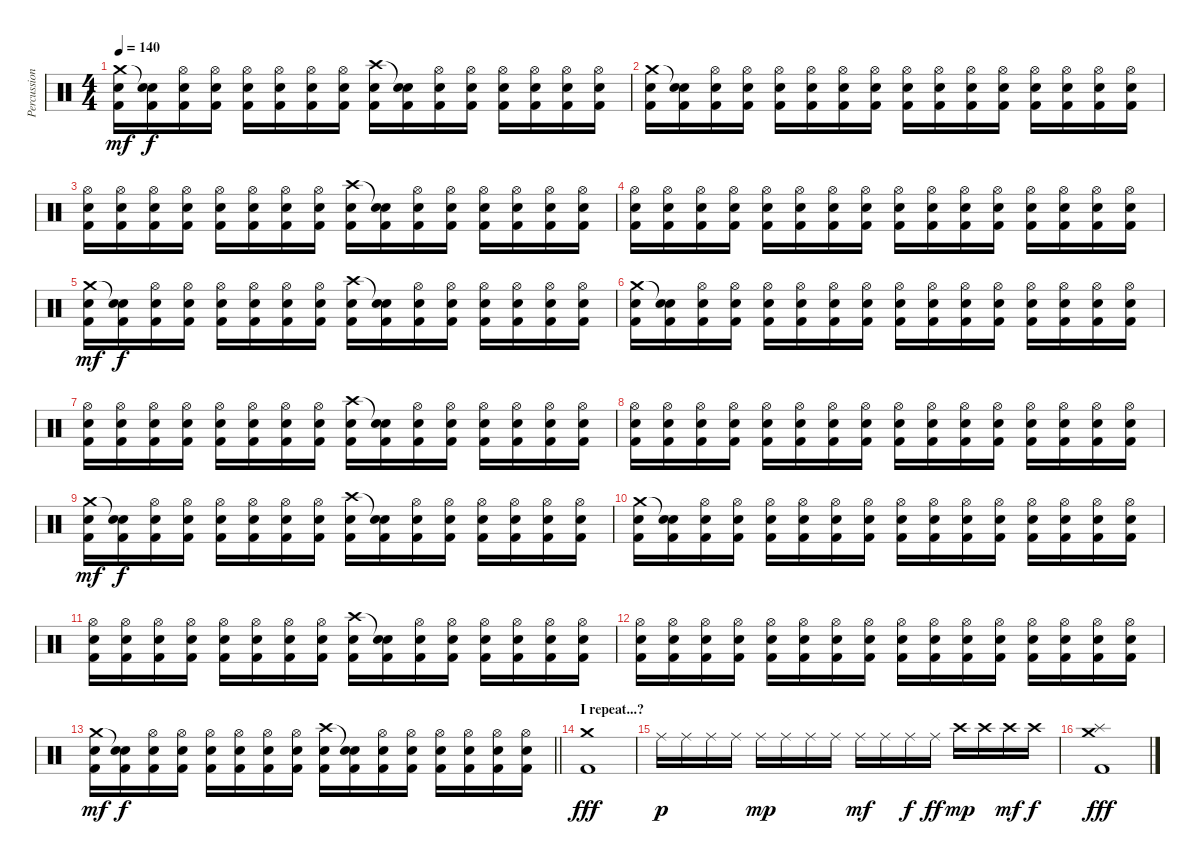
\track ("Percussion" "Percussion") {instrument percussion}
\staff {score}
\articulation defaults
\ts (4 4)
\tempo 140
\clef neutral
\ks c
("Crash medium (hit)" "Electric Snare (hit)" "Kick (hit) 2").16{dy mf} ("Snare (hit)"{t} "Electric Snare (hit)" "Kick (hit) 2").16{dy f} ("Hi-Hat (open)" "Electric Snare (hit)" "Kick (hit) 2").16 ("Hi-Hat (open)" "Electric Snare (hit)" "Kick (hit) 2").16 ("Hi-Hat (open)" "Electric Snare (hit)" "Kick (hit) 2").16 ("Hi-Hat (open)" "Electric Snare (hit)" "Kick (hit) 2").16 ("Hi-Hat (open)" "Electric Snare (hit)" "Kick (hit) 2").16 ("Hi-Hat (open)" "Electric Snare (hit)" "Kick (hit) 2").16 ("Crash high (hit)" "Electric Snare (hit)" "Kick (hit) 2").16 ("Snare (hit)"{t} "Electric Snare (hit)" "Kick (hit) 2").16 ("Hi-Hat (open)" "Electric Snare (hit)" "Kick (hit) 2").16 ("Hi-Hat (open)" "Electric Snare (hit)" "Kick (hit) 2").16 ("Hi-Hat (open)" "Electric Snare (hit)" "Kick (hit) 2").16 ("Hi-Hat (open)" "Electric Snare (hit)" "Kick (hit) 2").16 ("Hi-Hat (open)" "Electric Snare (hit)" "Kick (hit) 2").16 ("Hi-Hat (open)" "Electric Snare (hit)" "Kick (hit) 2").16 |
("Crash medium (hit)" "Electric Snare (hit)" "Kick (hit) 2").16 ("Snare (hit)"{t} "Electric Snare (hit)" "Kick (hit) 2").16 ("Hi-Hat (open)" "Electric Snare (hit)" "Kick (hit) 2").16 ("Hi-Hat (open)" "Electric Snare (hit)" "Kick (hit) 2").16 ("Hi-Hat (open)" "Electric Snare (hit)" "Kick (hit) 2").16 ("Hi-Hat (open)" "Electric Snare (hit)" "Kick (hit) 2").16 ("Hi-Hat (open)" "Electric Snare (hit)" "Kick (hit) 2").16 ("Hi-Hat (open)" "Electric Snare (hit)" "Kick (hit) 2").16 ("Hi-Hat (open)" "Electric Snare (hit)" "Kick (hit) 2").16 ("Hi-Hat (open)" "Electric Snare (hit)" "Kick (hit) 2").16 ("Hi-Hat (open)" "Electric Snare (hit)" "Kick (hit) 2").16 ("Hi-Hat (open)" "Electric Snare (hit)" "Kick (hit) 2").16 ("Hi-Hat (open)" "Electric Snare (hit)" "Kick (hit) 2").16 ("Hi-Hat (open)" "Electric Snare (hit)" "Kick (hit) 2").16 ("Hi-Hat (open)" "Electric Snare (hit)" "Kick (hit) 2").16 ("Hi-Hat (open)" "Electric Snare (hit)" "Kick (hit) 2").16 |
("Hi-Hat (open)" "Electric Snare (hit)" "Kick (hit) 2").16 ("Hi-Hat (open)" "Electric Snare (hit)" "Kick (hit) 2").16 ("Hi-Hat (open)" "Electric Snare (hit)" "Kick (hit) 2").16 ("Hi-Hat (open)" "Electric Snare (hit)" "Kick (hit) 2").16 ("Hi-Hat (open)" "Electric Snare (hit)" "Kick (hit) 2").16 ("Hi-Hat (open)" "Electric Snare (hit)" "Kick (hit) 2").16 ("Hi-Hat (open)" "Electric Snare (hit)" "Kick (hit) 2").16 ("Hi-Hat (open)" "Electric Snare (hit)" "Kick (hit) 2").16 ("Crash high (hit)" "Electric Snare (hit)" "Kick (hit) 2").16 ("Snare (hit)"{t} "Electric Snare (hit)" "Kick (hit) 2").16 ("Hi-Hat (open)" "Electric Snare (hit)" "Kick (hit) 2").16 ("Hi-Hat (open)" "Electric Snare (hit)" "Kick (hit) 2").16 ("Hi-Hat (open)" "Electric Snare (hit)" "Kick (hit) 2").16 ("Hi-Hat (open)" "Electric Snare (hit)" "Kick (hit) 2").16 ("Hi-Hat (open)" "Electric Snare (hit)" "Kick (hit) 2").16 ("Hi-Hat (open)" "Electric Snare (hit)" "Kick (hit) 2").16 |
("Hi-Hat (open)" "Electric Snare (hit)" "Kick (hit) 2").16 ("Hi-Hat (open)" "Electric Snare (hit)" "Kick (hit) 2").16 ("Hi-Hat (open)" "Electric Snare (hit)" "Kick (hit) 2").16 ("Hi-Hat (open)" "Electric Snare (hit)" "Kick (hit) 2").16 ("Hi-Hat (open)" "Electric Snare (hit)" "Kick (hit) 2").16 ("Hi-Hat (open)" "Electric Snare (hit)" "Kick (hit) 2").16 ("Hi-Hat (open)" "Electric Snare (hit)" "Kick (hit) 2").16 ("Hi-Hat (open)" "Electric Snare (hit)" "Kick (hit) 2").16 ("Hi-Hat (open)" "Electric Snare (hit)" "Kick (hit) 2").16 ("Hi-Hat (open)" "Electric Snare (hit)" "Kick (hit) 2").16 ("Hi-Hat (open)" "Electric Snare (hit)" "Kick (hit) 2").16 ("Hi-Hat (open)" "Electric Snare (hit)" "Kick (hit) 2").16 ("Hi-Hat (open)" "Electric Snare (hit)" "Kick (hit) 2").16 ("Hi-Hat (open)" "Electric Snare (hit)" "Kick (hit) 2").16 ("Hi-Hat (open)" "Electric Snare (hit)" "Kick (hit) 2").16 ("Hi-Hat (open)" "Electric Snare (hit)" "Kick (hit) 2").16 |
("Crash medium (hit)" "Electric Snare (hit)" "Kick (hit) 2").16{dy mf} ("Snare (hit)"{t} "Electric Snare (hit)" "Kick (hit) 2").16{dy f} ("Hi-Hat (open)" "Electric Snare (hit)" "Kick (hit) 2").16 ("Hi-Hat (open)" "Electric Snare (hit)" "Kick (hit) 2").16 ("Hi-Hat (open)" "Electric Snare (hit)" "Kick (hit) 2").16 ("Hi-Hat (open)" "Electric Snare (hit)" "Kick (hit) 2").16 ("Hi-Hat (open)" "Electric Snare (hit)" "Kick (hit) 2").16 ("Hi-Hat (open)" "Electric Snare (hit)" "Kick (hit) 2").16 ("Crash high (hit)" "Electric Snare (hit)" "Kick (hit) 2").16 ("Snare (hit)"{t} "Electric Snare (hit)" "Kick (hit) 2").16 ("Hi-Hat (open)" "Electric Snare (hit)" "Kick (hit) 2").16 ("Hi-Hat (open)" "Electric Snare (hit)" "Kick (hit) 2").16 ("Hi-Hat (open)" "Electric Snare (hit)" "Kick (hit) 2").16 ("Hi-Hat (open)" "Electric Snare (hit)" "Kick (hit) 2").16 ("Hi-Hat (open)" "Electric Snare (hit)" "Kick (hit) 2").16 ("Hi-Hat (open)" "Electric Snare (hit)" "Kick (hit) 2").16 |
("Crash medium (hit)" "Electric Snare (hit)" "Kick (hit) 2").16 ("Snare (hit)"{t} "Electric Snare (hit)" "Kick (hit) 2").16 ("Hi-Hat (open)" "Electric Snare (hit)" "Kick (hit) 2").16 ("Hi-Hat (open)" "Electric Snare (hit)" "Kick (hit) 2").16 ("Hi-Hat (open)" "Electric Snare (hit)" "Kick (hit) 2").16 ("Hi-Hat (open)" "Electric Snare (hit)" "Kick (hit) 2").16 ("Hi-Hat (open)" "Electric Snare (hit)" "Kick (hit) 2").16 ("Hi-Hat (open)" "Electric Snare (hit)" "Kick (hit) 2").16 ("Hi-Hat (open)" "Electric Snare (hit)" "Kick (hit) 2").16 ("Hi-Hat (open)" "Electric Snare (hit)" "Kick (hit) 2").16 ("Hi-Hat (open)" "Electric Snare (hit)" "Kick (hit) 2").16 ("Hi-Hat (open)" "Electric Snare (hit)" "Kick (hit) 2").16 ("Hi-Hat (open)" "Electric Snare (hit)" "Kick (hit) 2").16 ("Hi-Hat (open)" "Electric Snare (hit)" "Kick (hit) 2").16 ("Hi-Hat (open)" "Electric Snare (hit)" "Kick (hit) 2").16 ("Hi-Hat (open)" "Electric Snare (hit)" "Kick (hit) 2").16 |
("Hi-Hat (open)" "Electric Snare (hit)" "Kick (hit) 2").16 ("Hi-Hat (open)" "Electric Snare (hit)" "Kick (hit) 2").16 ("Hi-Hat (open)" "Electric Snare (hit)" "Kick (hit) 2").16 ("Hi-Hat (open)" "Electric Snare (hit)" "Kick (hit) 2").16 ("Hi-Hat (open)" "Electric Snare (hit)" "Kick (hit) 2").16 ("Hi-Hat (open)" "Electric Snare (hit)" "Kick (hit) 2").16 ("Hi-Hat (open)" "Electric Snare (hit)" "Kick (hit) 2").16 ("Hi-Hat (open)" "Electric Snare (hit)" "Kick (hit) 2").16 ("Crash high (hit)" "Electric Snare (hit)" "Kick (hit) 2").16 ("Snare (hit)"{t} "Electric Snare (hit)" "Kick (hit) 2").16 ("Hi-Hat (open)" "Electric Snare (hit)" "Kick (hit) 2").16 ("Hi-Hat (open)" "Electric Snare (hit)" "Kick (hit) 2").16 ("Hi-Hat (open)" "Electric Snare (hit)" "Kick (hit) 2").16 ("Hi-Hat (open)" "Electric Snare (hit)" "Kick (hit) 2").16 ("Hi-Hat (open)" "Electric Snare (hit)" "Kick (hit) 2").16 ("Hi-Hat (open)" "Electric Snare (hit)" "Kick (hit) 2").16 |
("Hi-Hat (open)" "Electric Snare (hit)" "Kick (hit) 2").16 ("Hi-Hat (open)" "Electric Snare (hit)" "Kick (hit) 2").16 ("Hi-Hat (open)" "Electric Snare (hit)" "Kick (hit) 2").16 ("Hi-Hat (open)" "Electric Snare (hit)" "Kick (hit) 2").16 ("Hi-Hat (open)" "Electric Snare (hit)" "Kick (hit) 2").16 ("Hi-Hat (open)" "Electric Snare (hit)" "Kick (hit) 2").16 ("Hi-Hat (open)" "Electric Snare (hit)" "Kick (hit) 2").16 ("Hi-Hat (open)" "Electric Snare (hit)" "Kick (hit) 2").16 ("Hi-Hat (open)" "Electric Snare (hit)" "Kick (hit) 2").16 ("Hi-Hat (open)" "Electric Snare (hit)" "Kick (hit) 2").16 ("Hi-Hat (open)" "Electric Snare (hit)" "Kick (hit) 2").16 ("Hi-Hat (open)" "Electric Snare (hit)" "Kick (hit) 2").16 ("Hi-Hat (open)" "Electric Snare (hit)" "Kick (hit) 2").16 ("Hi-Hat (open)" "Electric Snare (hit)" "Kick (hit) 2").16 ("Hi-Hat (open)" "Electric Snare (hit)" "Kick (hit) 2").16 ("Hi-Hat (open)" "Electric Snare (hit)" "Kick (hit) 2").16 |
("Crash medium (hit)" "Electric Snare (hit)" "Kick (hit) 2").16{dy mf} ("Snare (hit)"{t} "Electric Snare (hit)" "Kick (hit) 2").16{dy f} ("Hi-Hat (open)" "Electric Snare (hit)" "Kick (hit) 2").16 ("Hi-Hat (open)" "Electric Snare (hit)" "Kick (hit) 2").16 ("Hi-Hat (open)" "Electric Snare (hit)" "Kick (hit) 2").16 ("Hi-Hat (open)" "Electric Snare (hit)" "Kick (hit) 2").16 ("Hi-Hat (open)" "Electric Snare (hit)" "Kick (hit) 2").16 ("Hi-Hat (open)" "Electric Snare (hit)" "Kick (hit) 2").16 ("Crash high (hit)" "Electric Snare (hit)" "Kick (hit) 2").16 ("Snare (hit)"{t} "Electric Snare (hit)" "Kick (hit) 2").16 ("Hi-Hat (open)" "Electric Snare (hit)" "Kick (hit) 2").16 ("Hi-Hat (open)" "Electric Snare (hit)" "Kick (hit) 2").16 ("Hi-Hat (open)" "Electric Snare (hit)" "Kick (hit) 2").16 ("Hi-Hat (open)" "Electric Snare (hit)" "Kick (hit) 2").16 ("Hi-Hat (open)" "Electric Snare (hit)" "Kick (hit) 2").16 ("Hi-Hat (open)" "Electric Snare (hit)" "Kick (hit) 2").16 |
("Crash medium (hit)" "Electric Snare (hit)" "Kick (hit) 2").16 ("Snare (hit)"{t} "Electric Snare (hit)" "Kick (hit) 2").16 ("Hi-Hat (open)" "Electric Snare (hit)" "Kick (hit) 2").16 ("Hi-Hat (open)" "Electric Snare (hit)" "Kick (hit) 2").16 ("Hi-Hat (open)" "Electric Snare (hit)" "Kick (hit) 2").16 ("Hi-Hat (open)" "Electric Snare (hit)" "Kick (hit) 2").16 ("Hi-Hat (open)" "Electric Snare (hit)" "Kick (hit) 2").16 ("Hi-Hat (open)" "Electric Snare (hit)" "Kick (hit) 2").16 ("Hi-Hat (open)" "Electric Snare (hit)" "Kick (hit) 2").16 ("Hi-Hat (open)" "Electric Snare (hit)" "Kick (hit) 2").16 ("Hi-Hat (open)" "Electric Snare (hit)" "Kick (hit) 2").16 ("Hi-Hat (open)" "Electric Snare (hit)" "Kick (hit) 2").16 ("Hi-Hat (open)" "Electric Snare (hit)" "Kick (hit) 2").16 ("Hi-Hat (open)" "Electric Snare (hit)" "Kick (hit) 2").16 ("Hi-Hat (open)" "Electric Snare (hit)" "Kick (hit) 2").16 ("Hi-Hat (open)" "Electric Snare (hit)" "Kick (hit) 2").16 |
("Hi-Hat (open)" "Electric Snare (hit)" "Kick (hit) 2").16 ("Hi-Hat (open)" "Electric Snare (hit)" "Kick (hit) 2").16 ("Hi-Hat (open)" "Electric Snare (hit)" "Kick (hit) 2").16 ("Hi-Hat (open)" "Electric Snare (hit)" "Kick (hit) 2").16 ("Hi-Hat (open)" "Electric Snare (hit)" "Kick (hit) 2").16 ("Hi-Hat (open)" "Electric Snare (hit)" "Kick (hit) 2").16 ("Hi-Hat (open)" "Electric Snare (hit)" "Kick (hit) 2").16 ("Hi-Hat (open)" "Electric Snare (hit)" "Kick (hit) 2").16 ("Crash high (hit)" "Electric Snare (hit)" "Kick (hit) 2").16 ("Snare (hit)"{t} "Electric Snare (hit)" "Kick (hit) 2").16 ("Hi-Hat (open)" "Electric Snare (hit)" "Kick (hit) 2").16 ("Hi-Hat (open)" "Electric Snare (hit)" "Kick (hit) 2").16 ("Hi-Hat (open)" "Electric Snare (hit)" "Kick (hit) 2").16 ("Hi-Hat (open)" "Electric Snare (hit)" "Kick (hit) 2").16 ("Hi-Hat (open)" "Electric Snare (hit)" "Kick (hit) 2").16 ("Hi-Hat (open)" "Electric Snare (hit)" "Kick (hit) 2").16 |
("Hi-Hat (open)" "Electric Snare (hit)" "Kick (hit) 2").16 ("Hi-Hat (open)" "Electric Snare (hit)" "Kick (hit) 2").16 ("Hi-Hat (open)" "Electric Snare (hit)" "Kick (hit) 2").16 ("Hi-Hat (open)" "Electric Snare (hit)" "Kick (hit) 2").16 ("Hi-Hat (open)" "Electric Snare (hit)" "Kick (hit) 2").16 ("Hi-Hat (open)" "Electric Snare (hit)" "Kick (hit) 2").16 ("Hi-Hat (open)" "Electric Snare (hit)" "Kick (hit) 2").16 ("Hi-Hat (open)" "Electric Snare (hit)" "Kick (hit) 2").16 ("Hi-Hat (open)" "Electric Snare (hit)" "Kick (hit) 2").16 ("Hi-Hat (open)" "Electric Snare (hit)" "Kick (hit) 2").16 ("Hi-Hat (open)" "Electric Snare (hit)" "Kick (hit) 2").16 ("Hi-Hat (open)" "Electric Snare (hit)" "Kick (hit) 2").16 ("Hi-Hat (open)" "Electric Snare (hit)" "Kick (hit) 2").16 ("Hi-Hat (open)" "Electric Snare (hit)" "Kick (hit) 2").16 ("Hi-Hat (open)" "Electric Snare (hit)" "Kick (hit) 2").16 ("Hi-Hat (open)" "Electric Snare (hit)" "Kick (hit) 2").16 |
\barLineRight lightlight
("Crash medium (hit)" "Electric Snare (hit)" "Kick (hit) 2").16{dy mf} ("Snare (hit)"{t} "Electric Snare (hit)" "Kick (hit) 2").16{dy f} ("Hi-Hat (open)" "Electric Snare (hit)" "Kick (hit) 2").16 ("Hi-Hat (open)" "Electric Snare (hit)" "Kick (hit) 2").16 ("Hi-Hat (open)" "Electric Snare (hit)" "Kick (hit) 2").16 ("Hi-Hat (open)" "Electric Snare (hit)" "Kick (hit) 2").16 ("Hi-Hat (open)" "Electric Snare (hit)" "Kick (hit) 2").16 ("Hi-Hat (open)" "Electric Snare (hit)" "Kick (hit) 2").16 ("Crash high (hit)" "Electric Snare (hit)" "Kick (hit) 2").16 ("Snare (hit)"{t} "Electric Snare (hit)" "Kick (hit) 2").16 ("Hi-Hat (open)" "Electric Snare (hit)" "Kick (hit) 2").16 ("Hi-Hat (open)" "Electric Snare (hit)" "Kick (hit) 2").16 ("Hi-Hat (open)" "Electric Snare (hit)" "Kick (hit) 2").16 ("Hi-Hat (open)" "Electric Snare (hit)" "Kick (hit) 2").16 ("Hi-Hat (open)" "Electric Snare (hit)" "Kick (hit) 2").16 ("Hi-Hat (open)" "Electric Snare (hit)" "Kick (hit) 2").16 |
\section ("" "I repeat...?")
("Crash medium (hit)" "Kick (hit) 2").1{dy fff} |
"Ride (middle)".16{dy p} "Ride (middle)".16 "Ride (middle)".16 "Ride (middle)".16 "Ride (middle)".16{dy mp} "Ride (middle)".16 "Ride (middle)".16 "Ride (middle)".16 "Ride (middle)".16{dy mf} "Ride (middle)".16 "Ride (middle)".16{dy f} "Ride (middle)".16{dy ff} "Crash high (hit)".16{dy mp} "Crash high (hit)".16 "Crash high (hit)".16{dy mf} "Crash high (hit)".16{dy f} |
("Crash medium (hit)" "Splash (hit)" "Kick (hit) 2").1{dy fff}
